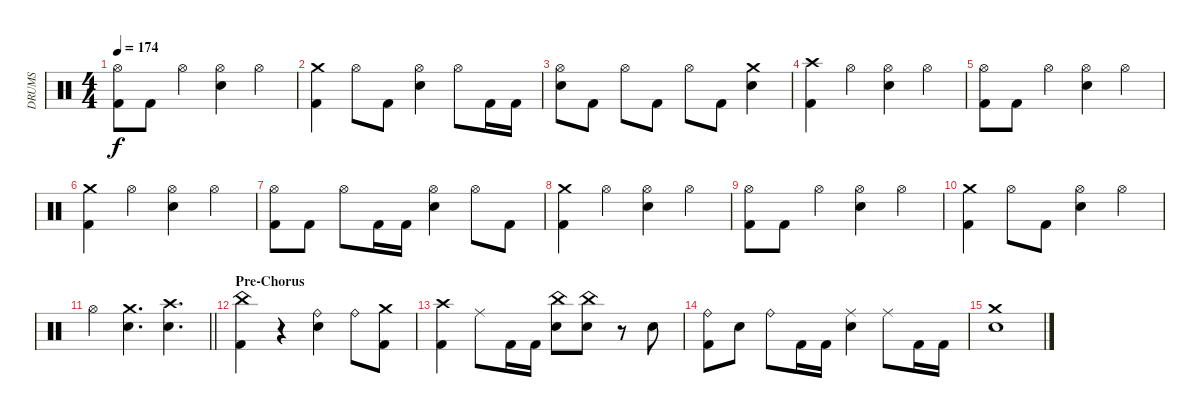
\track ("DRUMS" "DRUMS") {instrument percussion}
\staff {score}
\articulation defaults
\ts (4 4)
\tempo 174
\clef neutral
\ks c
("Hi-Hat (open)" "Kick (hit) 2").8{dy f} "Kick (hit) 2".8 "Hi-Hat (open)".4 ("Hi-Hat (open)" "Snare (hit) 2").4 "Hi-Hat (open)".4 |
("Crash medium (hit)" "Kick (hit) 2").4 "Hi-Hat (open)".8 "Kick (hit) 2".8 ("Hi-Hat (open)" "Snare (hit) 2").4 "Hi-Hat (open)".8 "Kick (hit) 2".16 "Kick (hit) 2".16 |
("Hi-Hat (open)" "Snare (hit) 2").8 "Kick (hit) 2".8 "Hi-Hat (open)".8 "Kick (hit) 2".8 "Hi-Hat (open)".8 "Kick (hit) 2".8 ("Crash medium (hit)" "Snare (hit) 2").4 |
("Crash high (hit)" "Kick (hit) 2").4 "Hi-Hat (open)".4 ("Hi-Hat (open)" "Snare (hit) 2").4 "Hi-Hat (open)".4 |
("Hi-Hat (open)" "Kick (hit) 2").8 "Kick (hit) 2".8 "Hi-Hat (open)".4 ("Hi-Hat (open)" "Snare (hit) 2").4 "Hi-Hat (open)".4 |
("Crash medium (hit)" "Kick (hit) 2").4 "Hi-Hat (open)".4 ("Hi-Hat (open)" "Snare (hit) 2").4 "Hi-Hat (open)".4 |
("Hi-Hat (open)" "Kick (hit) 2").8 "Kick (hit) 2".8 "Hi-Hat (open)".8 "Kick (hit) 2".16 "Kick (hit) 2".16 ("Hi-Hat (open)" "Snare (hit) 2").4 "Hi-Hat (open)".8 "Kick (hit) 2".8 |
("Crash medium (hit)" "Kick (hit) 2").4 "Hi-Hat (open)".4 ("Hi-Hat (open)" "Snare (hit) 2").4 "Hi-Hat (open)".4 |
("Hi-Hat (open)" "Kick (hit) 2").8 "Kick (hit) 2".8 "Hi-Hat (open)".4 ("Hi-Hat (open)" "Snare (hit) 2").4 "Hi-Hat (open)".4 |
("Crash medium (hit)" "Kick (hit) 2").4 "Hi-Hat (open)".8 "Kick (hit) 2".8 ("Hi-Hat (open)" "Snare (hit) 2").4 "Hi-Hat (open)".4 |
\barLineRight lightlight "Hi-Hat (open)".4
("Crash medium (hit)" "Snare (hit) 2").4{d} ("Crash high (hit)" "Snare (hit) 2").4{d} |
\section ("" "Pre-Chorus")
("China (hit)" "Kick (hit) 2").4 r.4 ("Ride (bell)" "Snare (hit) 2").4 "Ride (bell)".8 ("Crash medium (hit)" "Kick (hit) 2").8 |
("Crash high (hit)" "Kick (hit) 2").4 "Ride (middle)".8 "Kick (hit) 2".16 "Kick (hit) 2".16 ("China (hit)" "Snare (hit) 2").8 ("China (hit)" "Snare (hit) 2").8 r.8 "Snare (hit) 2".8 |
("Ride (bell)" "Kick (hit) 2").8 "Snare (hit) 2".8 "Ride (bell)".8 "Kick (hit) 2".16 "Kick (hit) 2".16 ("Ride (middle)" "Snare (hit) 2").4 "Ride (middle)".8 "Kick (hit) 2".16 "Kick (hit) 2".16 |
("Crash medium (hit)" "Snare (hit) 2").1
